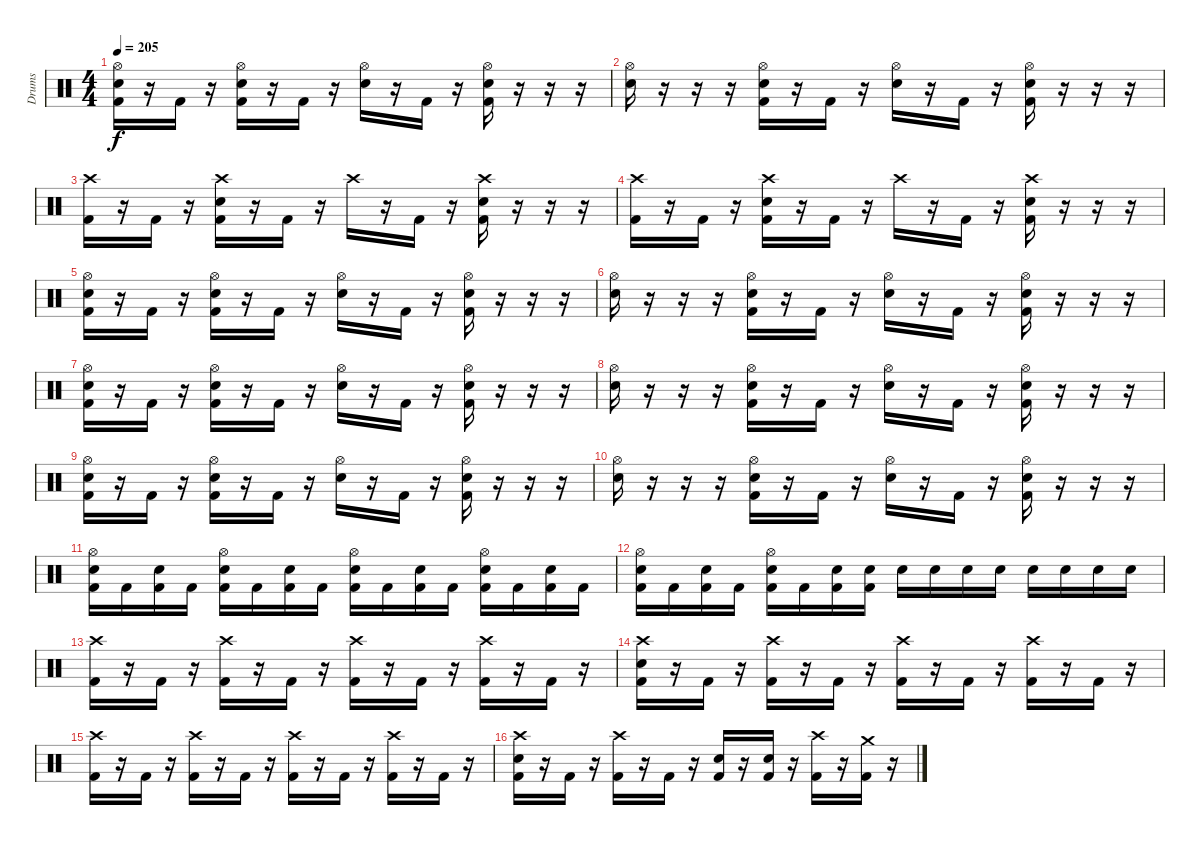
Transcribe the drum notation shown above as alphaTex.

\track ("Drums" "Drums") {instrument percussion}
\staff {score}
\articulation defaults
\ts (4 4)
\tempo 205
\clef neutral
\ks c
("Hi-Hat (open)" "Electric Snare (hit)" "Kick (hit) 2").16{dy f} r.16 "Kick (hit) 2".16 r.16 ("Hi-Hat (open)" "Electric Snare (hit)" "Kick (hit) 2").16 r.16 "Kick (hit) 2".16 r.16 ("Hi-Hat (open)" "Electric Snare (hit)").16 r.16 "Kick (hit) 2".16 r.16 ("Hi-Hat (open)" "Electric Snare (hit)" "Kick (hit) 2").16 r.16 r.16 r.16 |
("Hi-Hat (open)" "Electric Snare (hit)").16 r.16 r.16 r.16 ("Hi-Hat (open)" "Electric Snare (hit)" "Kick (hit) 2").16 r.16 "Kick (hit) 2".16 r.16 ("Hi-Hat (open)" "Electric Snare (hit)").16 r.16 "Kick (hit) 2".16 r.16 ("Hi-Hat (open)" "Electric Snare (hit)" "Kick (hit) 2").16 r.16 r.16 r.16 |
("Crash high (hit)" "Kick (hit) 2").16 r.16 "Kick (hit) 2".16 r.16 ("Crash high (hit)" "Electric Snare (hit)" "Kick (hit) 2").16 r.16 "Kick (hit) 2".16 r.16 "Crash high (hit)".16 r.16 "Kick (hit) 2".16 r.16 ("Crash high (hit)" "Electric Snare (hit)" "Kick (hit) 2").16 r.16 r.16 r.16 |
("Crash high (hit)" "Kick (hit) 2").16 r.16 "Kick (hit) 2".16 r.16 ("Crash high (hit)" "Electric Snare (hit)" "Kick (hit) 2").16 r.16 "Kick (hit) 2".16 r.16 "Crash high (hit)".16 r.16 "Kick (hit) 2".16 r.16 ("Crash high (hit)" "Electric Snare (hit)" "Kick (hit) 2").16 r.16 r.16 r.16 |
("Hi-Hat (open)" "Electric Snare (hit)" "Kick (hit) 2").16 r.16 "Kick (hit) 2".16 r.16 ("Hi-Hat (open)" "Electric Snare (hit)" "Kick (hit) 2").16 r.16 "Kick (hit) 2".16 r.16 ("Hi-Hat (open)" "Electric Snare (hit)").16 r.16 "Kick (hit) 2".16 r.16 ("Hi-Hat (open)" "Electric Snare (hit)" "Kick (hit) 2").16 r.16 r.16 r.16 |
("Hi-Hat (open)" "Electric Snare (hit)").16 r.16 r.16 r.16 ("Hi-Hat (open)" "Electric Snare (hit)" "Kick (hit) 2").16 r.16 "Kick (hit) 2".16 r.16 ("Hi-Hat (open)" "Electric Snare (hit)").16 r.16 "Kick (hit) 2".16 r.16 ("Hi-Hat (open)" "Electric Snare (hit)" "Kick (hit) 2").16 r.16 r.16 r.16 |
("Hi-Hat (open)" "Electric Snare (hit)" "Kick (hit) 2").16 r.16 "Kick (hit) 2".16 r.16 ("Hi-Hat (open)" "Electric Snare (hit)" "Kick (hit) 2").16 r.16 "Kick (hit) 2".16 r.16 ("Hi-Hat (open)" "Electric Snare (hit)").16 r.16 "Kick (hit) 2".16 r.16 ("Hi-Hat (open)" "Electric Snare (hit)" "Kick (hit) 2").16 r.16 r.16 r.16 |
("Hi-Hat (open)" "Electric Snare (hit)").16 r.16 r.16 r.16 ("Hi-Hat (open)" "Electric Snare (hit)" "Kick (hit) 2").16 r.16 "Kick (hit) 2".16 r.16 ("Hi-Hat (open)" "Electric Snare (hit)").16 r.16 "Kick (hit) 2".16 r.16 ("Hi-Hat (open)" "Electric Snare (hit)" "Kick (hit) 2").16 r.16 r.16 r.16 |
("Hi-Hat (open)" "Electric Snare (hit)" "Kick (hit) 2").16 r.16 "Kick (hit) 2".16 r.16 ("Hi-Hat (open)" "Electric Snare (hit)" "Kick (hit) 2").16 r.16 "Kick (hit) 2".16 r.16 ("Hi-Hat (open)" "Electric Snare (hit)").16 r.16 "Kick (hit) 2".16 r.16 ("Hi-Hat (open)" "Electric Snare (hit)" "Kick (hit) 2").16 r.16 r.16 r.16 |
("Hi-Hat (open)" "Electric Snare (hit)").16 r.16 r.16 r.16 ("Hi-Hat (open)" "Electric Snare (hit)" "Kick (hit) 2").16 r.16 "Kick (hit) 2".16 r.16 ("Hi-Hat (open)" "Electric Snare (hit)").16 r.16 "Kick (hit) 2".16 r.16 ("Hi-Hat (open)" "Electric Snare (hit)" "Kick (hit) 2").16 r.16 r.16 r.16 |
("Hi-Hat (open)" "Electric Snare (hit)" "Kick (hit) 2").16 "Kick (hit) 2".16 ("Electric Snare (hit)" "Kick (hit) 2").16 "Kick (hit) 2".16 ("Hi-Hat (open)" "Electric Snare (hit)" "Kick (hit) 2").16 "Kick (hit) 2".16 ("Electric Snare (hit)" "Kick (hit) 2").16 "Kick (hit) 2".16 ("Hi-Hat (open)" "Electric Snare (hit)" "Kick (hit) 2").16 "Kick (hit) 2".16 ("Electric Snare (hit)" "Kick (hit) 2").16 "Kick (hit) 2".16 ("Hi-Hat (open)" "Electric Snare (hit)" "Kick (hit) 2").16 "Kick (hit) 2".16 ("Electric Snare (hit)" "Kick (hit) 2").16 "Kick (hit) 2".16 |
("Hi-Hat (open)" "Electric Snare (hit)" "Kick (hit) 2").16 "Kick (hit) 2".16 ("Electric Snare (hit)" "Kick (hit) 2").16 "Kick (hit) 2".16 ("Hi-Hat (open)" "Electric Snare (hit)" "Kick (hit) 2").16 "Kick (hit) 2".16 ("Electric Snare (hit)" "Kick (hit) 2").16 ("Electric Snare (hit)" "Kick (hit) 2").16 "Electric Snare (hit)".16 "Electric Snare (hit)".16 "Electric Snare (hit)".16 "Electric Snare (hit)".16 "Electric Snare (hit)".16 "Electric Snare (hit)".16 "Electric Snare (hit)".16 "Electric Snare (hit)".16 |
("Crash high (hit)" "Kick (hit) 2").16 r.16 "Kick (hit) 2".16 r.16 ("Crash high (hit)" "Kick (hit) 2").16 r.16 "Kick (hit) 2".16 r.16 ("Crash high (hit)" "Kick (hit) 2").16 r.16 "Kick (hit) 2".16 r.16 ("Crash high (hit)" "Kick (hit) 2").16 r.16 "Kick (hit) 2".16 r.16 |
("Crash high (hit)" "Electric Snare (hit)" "Kick (hit) 2").16 r.16 "Kick (hit) 2".16 r.16 ("Crash high (hit)" "Kick (hit) 2").16 r.16 "Kick (hit) 2".16 r.16 ("Crash high (hit)" "Kick (hit) 2").16 r.16 "Kick (hit) 2".16 r.16 ("Crash high (hit)" "Kick (hit) 2").16 r.16 "Kick (hit) 2".16 r.16 |
("Crash high (hit)" "Kick (hit) 2").16 r.16 "Kick (hit) 2".16 r.16 ("Crash high (hit)" "Kick (hit) 2").16 r.16 "Kick (hit) 2".16 r.16 ("Crash high (hit)" "Kick (hit) 2").16 r.16 "Kick (hit) 2".16 r.16 ("Crash high (hit)" "Kick (hit) 2").16 r.16 "Kick (hit) 2".16 r.16 |
("Crash high (hit)" "Electric Snare (hit)" "Kick (hit) 2").16 r.16 "Kick (hit) 2".16 r.16 ("Crash high (hit)" "Kick (hit) 2").16 r.16 "Kick (hit) 2".16 r.16 ("Electric Snare (hit)" "Kick (hit) 2").16 r.16 ("Electric Snare (hit)" "Kick (hit) 2").16 r.16 ("Crash high (hit)" "Kick (hit) 2").16 r.16 ("Crash medium (hit)" "Kick (hit) 2").16 r.16
